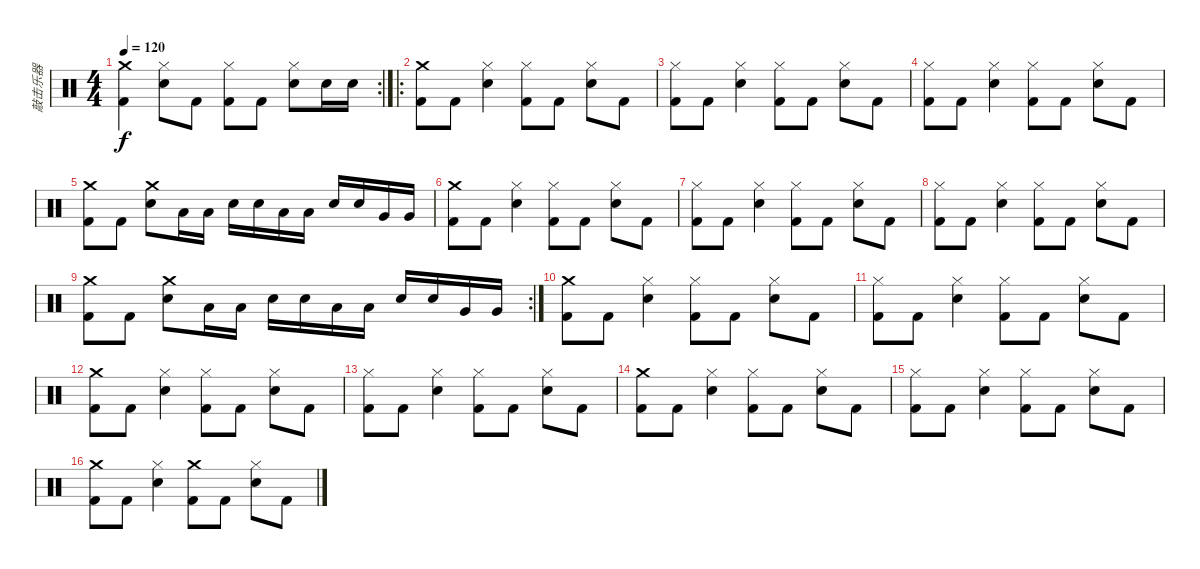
\track ("敲击乐器" "敲击乐器") {instrument percussion}
\staff {score}
\articulation defaults
\rc 2
\ts (4 4)
\tempo 120
\clef neutral
\ks c
("Crash medium (hit)" "Kick (hit) 2").4{dy f} ("Hi-Hat (closed)" "Electric Snare (hit)").8 "Kick (hit) 2".8 ("Hi-Hat (closed)" "Kick (hit) 2").8 "Kick (hit) 2".8 ("Hi-Hat (closed)" "Electric Snare (hit)").8 "Electric Snare (hit)".16 "Electric Snare (hit)".16 |
\ro
("Crash medium (hit)" "Kick (hit) 2").8 "Kick (hit) 2".8 ("Hi-Hat (closed)" "Electric Snare (hit)").4 ("Hi-Hat (closed)" "Kick (hit) 2").8 "Kick (hit) 2".8 ("Hi-Hat (closed)" "Electric Snare (hit)").8 "Kick (hit) 2".8 |
("Hi-Hat (closed)" "Kick (hit) 2").8 "Kick (hit) 2".8 ("Hi-Hat (closed)" "Electric Snare (hit)").4 ("Hi-Hat (closed)" "Kick (hit) 2").8 "Kick (hit) 2".8 ("Hi-Hat (closed)" "Electric Snare (hit)").8 "Kick (hit) 2".8 |
("Hi-Hat (closed)" "Kick (hit) 2").8 "Kick (hit) 2".8 ("Hi-Hat (closed)" "Electric Snare (hit)").4 ("Hi-Hat (closed)" "Kick (hit) 2").8 "Kick (hit) 2".8 ("Hi-Hat (closed)" "Electric Snare (hit)").8 "Kick (hit) 2".8 |
("Crash medium (hit)" "Kick (hit) 2").8 "Kick (hit) 2".8 ("Crash medium (hit)" "Electric Snare (hit)").8 "Low Tom (hit)".16 "Low Tom (hit)".16 "Electric Snare (hit)".16 "Electric Snare (hit)".16 "Low Tom (hit)".16 "Low Tom (hit)".16 "Electric Snare (hit)".16 "Electric Snare (hit)".16 "Very Low Tom (hit)".16 "Very Low Tom (hit)".16 |
("Crash medium (hit)" "Kick (hit) 2").8 "Kick (hit) 2".8 ("Hi-Hat (closed)" "Electric Snare (hit)").4 ("Hi-Hat (closed)" "Kick (hit) 2").8 "Kick (hit) 2".8 ("Hi-Hat (closed)" "Electric Snare (hit)").8 "Kick (hit) 2".8 |
("Hi-Hat (closed)" "Kick (hit) 2").8 "Kick (hit) 2".8 ("Hi-Hat (closed)" "Electric Snare (hit)").4 ("Hi-Hat (closed)" "Kick (hit) 2").8 "Kick (hit) 2".8 ("Hi-Hat (closed)" "Electric Snare (hit)").8 "Kick (hit) 2".8 |
("Hi-Hat (closed)" "Kick (hit) 2").8 "Kick (hit) 2".8 ("Hi-Hat (closed)" "Electric Snare (hit)").4 ("Hi-Hat (closed)" "Kick (hit) 2").8 "Kick (hit) 2".8 ("Hi-Hat (closed)" "Electric Snare (hit)").8 "Kick (hit) 2".8 |
\rc 2
("Crash medium (hit)" "Kick (hit) 2").8 "Kick (hit) 2".8 ("Crash medium (hit)" "Electric Snare (hit)").8 "Low Tom (hit)".16 "Low Tom (hit)".16 "Electric Snare (hit)".16 "Electric Snare (hit)".16 "Low Tom (hit)".16 "Low Tom (hit)".16 "Electric Snare (hit)".16 "Electric Snare (hit)".16 "Very Low Tom (hit)".16 "Very Low Tom (hit)".16 |
("Crash medium (hit)" "Kick (hit) 2").8 "Kick (hit) 2".8 ("Hi-Hat (closed)" "Electric Snare (hit)").4 ("Hi-Hat (closed)" "Kick (hit) 2").8 "Kick (hit) 2".8 ("Hi-Hat (closed)" "Electric Snare (hit)").8 "Kick (hit) 2".8 |
("Hi-Hat (closed)" "Kick (hit) 2").8 "Kick (hit) 2".8 ("Hi-Hat (closed)" "Electric Snare (hit)").4 ("Hi-Hat (closed)" "Kick (hit) 2").8 "Kick (hit) 2".8 ("Hi-Hat (closed)" "Electric Snare (hit)").8 "Kick (hit) 2".8 |
("Crash medium (hit)" "Kick (hit) 2").8 "Kick (hit) 2".8 ("Hi-Hat (closed)" "Electric Snare (hit)").4 ("Hi-Hat (closed)" "Kick (hit) 2").8 "Kick (hit) 2".8 ("Hi-Hat (closed)" "Electric Snare (hit)").8 "Kick (hit) 2".8 |
("Hi-Hat (closed)" "Kick (hit) 2").8 "Kick (hit) 2".8 ("Hi-Hat (closed)" "Electric Snare (hit)").4 ("Hi-Hat (closed)" "Kick (hit) 2").8 "Kick (hit) 2".8 ("Hi-Hat (closed)" "Electric Snare (hit)").8 "Kick (hit) 2".8 |
("Crash medium (hit)" "Kick (hit) 2").8 "Kick (hit) 2".8 ("Hi-Hat (closed)" "Electric Snare (hit)").4 ("Hi-Hat (closed)" "Kick (hit) 2").8 "Kick (hit) 2".8 ("Hi-Hat (closed)" "Electric Snare (hit)").8 "Kick (hit) 2".8 |
("Hi-Hat (closed)" "Kick (hit) 2").8 "Kick (hit) 2".8 ("Hi-Hat (closed)" "Electric Snare (hit)").4 ("Hi-Hat (closed)" "Kick (hit) 2").8 "Kick (hit) 2".8 ("Hi-Hat (closed)" "Electric Snare (hit)").8 "Kick (hit) 2".8 |
("Crash medium (hit)" "Kick (hit) 2").8 "Kick (hit) 2".8 ("Hi-Hat (closed)" "Electric Snare (hit)").4 ("Crash medium (hit)" "Kick (hit) 2").8 "Kick (hit) 2".8 ("Hi-Hat (closed)" "Electric Snare (hit)").8 "Kick (hit) 2".8
